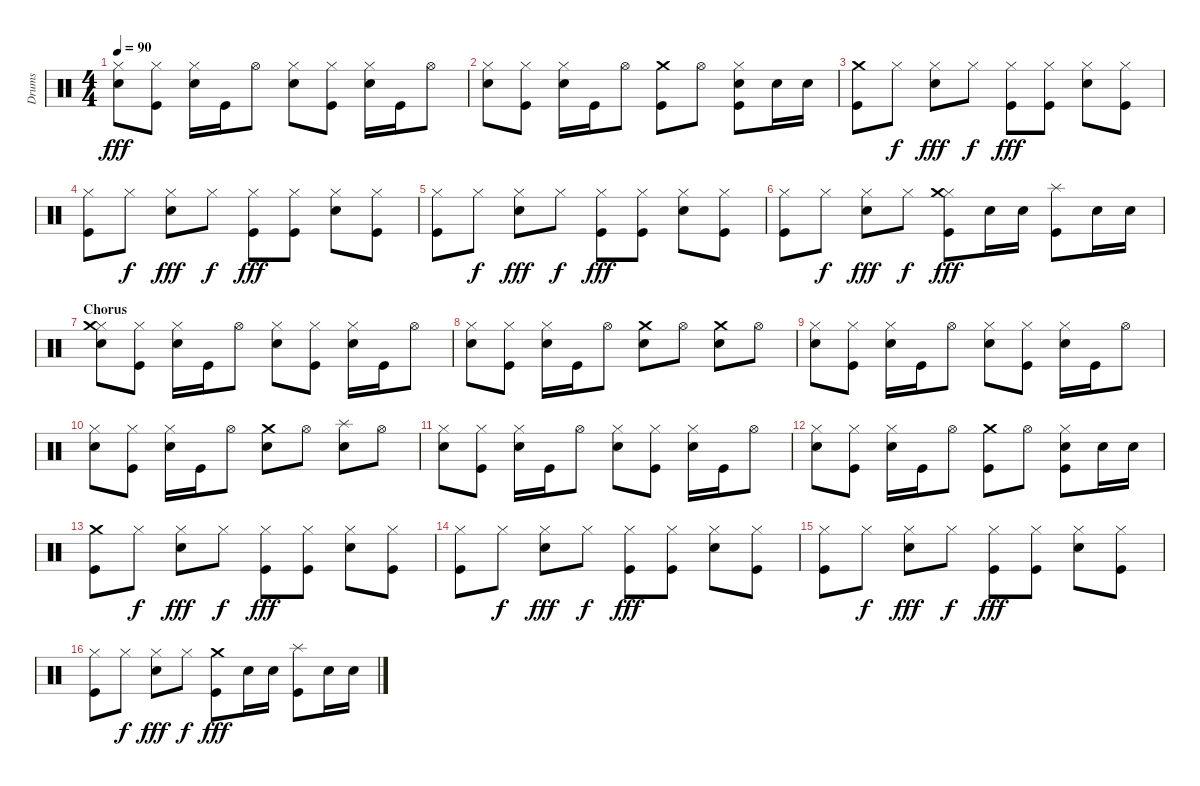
\track ("Drums" "Drums") {instrument percussion}
\staff {score}
\articulation defaults
\ts (4 4)
\tempo 90
\clef neutral
\ks c
("Hi-Hat (closed)" "Snare (hit) 2").8{dy fff} ("Hi-Hat (closed)" "Kick (hit)").8 ("Hi-Hat (closed)" "Snare (hit) 2").16 "Kick (hit)".16 "Hi-Hat (open)".8 ("Hi-Hat (closed)" "Snare (hit) 2").8 ("Hi-Hat (closed)" "Kick (hit)").8 ("Hi-Hat (closed)" "Snare (hit) 2").16 "Kick (hit)".16 "Hi-Hat (open)".8 |
("Hi-Hat (closed)" "Snare (hit) 2").8 ("Hi-Hat (closed)" "Kick (hit)").8 ("Hi-Hat (closed)" "Snare (hit) 2").16 "Kick (hit)".16 "Hi-Hat (open)".8 ("Crash medium (hit)" "Kick (hit)").8 "Hi-Hat (open)".8 ("Hi-Hat (closed)" "Snare (hit) 2" "Kick (hit)").8 "Snare (hit) 2".16 "Snare (hit) 2".16 |
("Crash medium (hit)" "Kick (hit)").8 "Hi-Hat (closed)".8{dy f} ("Hi-Hat (closed)" "Snare (hit) 2").8{dy fff} "Hi-Hat (closed)".8{dy f} ("Hi-Hat (closed)" "Kick (hit)").8{dy fff} ("Hi-Hat (closed)" "Kick (hit)").8 ("Hi-Hat (closed)" "Snare (hit) 2").8 ("Hi-Hat (closed)" "Kick (hit)").8 |
("Hi-Hat (closed)" "Kick (hit)").8 "Hi-Hat (closed)".8{dy f} ("Hi-Hat (closed)" "Snare (hit) 2").8{dy fff} "Hi-Hat (closed)".8{dy f} ("Hi-Hat (closed)" "Kick (hit)").8{dy fff} ("Hi-Hat (closed)" "Kick (hit)").8 ("Hi-Hat (closed)" "Snare (hit) 2").8 ("Hi-Hat (closed)" "Kick (hit)").8 |
("Hi-Hat (closed)" "Kick (hit)").8 "Hi-Hat (closed)".8{dy f} ("Hi-Hat (closed)" "Snare (hit) 2").8{dy fff} "Hi-Hat (closed)".8{dy f} ("Hi-Hat (closed)" "Kick (hit)").8{dy fff} ("Hi-Hat (closed)" "Kick (hit)").8 ("Hi-Hat (closed)" "Snare (hit) 2").8 ("Hi-Hat (closed)" "Kick (hit)").8 |
("Hi-Hat (closed)" "Kick (hit)").8 "Hi-Hat (closed)".8{dy f} ("Hi-Hat (closed)" "Snare (hit) 2").8{dy fff} "Hi-Hat (closed)".8{dy f} ("Hi-Hat (closed)" "Crash medium (hit)" "Kick (hit)").8{dy fff} "Snare (hit) 2".16 "Snare (hit) 2".16 ("Splash (hit)" "Kick (hit)").8 "Snare (hit) 2".16 "Snare (hit) 2".16 |
\section ("" "Chorus")
("Hi-Hat (closed)" "Snare (hit) 2" "Crash medium (hit)").8 ("Hi-Hat (closed)" "Kick (hit)").8 ("Hi-Hat (closed)" "Snare (hit) 2").16 "Kick (hit)".16 "Hi-Hat (open)".8 ("Hi-Hat (closed)" "Snare (hit) 2").8 ("Hi-Hat (closed)" "Kick (hit)").8 ("Hi-Hat (closed)" "Snare (hit) 2").16 "Kick (hit)".16 "Hi-Hat (open)".8 |
("Hi-Hat (closed)" "Snare (hit) 2").8 ("Hi-Hat (closed)" "Kick (hit)").8 ("Hi-Hat (closed)" "Snare (hit) 2").16 "Kick (hit)".16 "Hi-Hat (open)".8 ("Snare (hit) 2" "Crash medium (hit)").8 "Hi-Hat (open)".8 ("Snare (hit) 2" "Crash medium (hit)").8 "Hi-Hat (open)".8 |
("Hi-Hat (closed)" "Snare (hit) 2").8 ("Hi-Hat (closed)" "Kick (hit)").8 ("Hi-Hat (closed)" "Snare (hit) 2").16 "Kick (hit)".16 "Hi-Hat (open)".8 ("Hi-Hat (closed)" "Snare (hit) 2").8 ("Hi-Hat (closed)" "Kick (hit)").8 ("Hi-Hat (closed)" "Snare (hit) 2").16 "Kick (hit)".16 "Hi-Hat (open)".8 |
("Hi-Hat (closed)" "Snare (hit) 2").8 ("Hi-Hat (closed)" "Kick (hit)").8 ("Hi-Hat (closed)" "Snare (hit) 2").16 "Kick (hit)".16 "Hi-Hat (open)".8 ("Snare (hit) 2" "Crash medium (hit)").8 "Hi-Hat (open)".8 ("Splash (hit)" "Snare (hit) 2").8 "Hi-Hat (open)".8 |
("Hi-Hat (closed)" "Snare (hit) 2").8 ("Hi-Hat (closed)" "Kick (hit)").8 ("Hi-Hat (closed)" "Snare (hit) 2").16 "Kick (hit)".16 "Hi-Hat (open)".8 ("Hi-Hat (closed)" "Snare (hit) 2").8 ("Hi-Hat (closed)" "Kick (hit)").8 ("Hi-Hat (closed)" "Snare (hit) 2").16 "Kick (hit)".16 "Hi-Hat (open)".8 |
("Hi-Hat (closed)" "Snare (hit) 2").8 ("Hi-Hat (closed)" "Kick (hit)").8 ("Hi-Hat (closed)" "Snare (hit) 2").16 "Kick (hit)".16 "Hi-Hat (open)".8 ("Crash medium (hit)" "Kick (hit)").8 "Hi-Hat (open)".8 ("Hi-Hat (closed)" "Snare (hit) 2" "Kick (hit)").8 "Snare (hit) 2".16 "Snare (hit) 2".16 |
("Crash medium (hit)" "Kick (hit)").8 "Hi-Hat (closed)".8{dy f} ("Hi-Hat (closed)" "Snare (hit) 2").8{dy fff} "Hi-Hat (closed)".8{dy f} ("Hi-Hat (closed)" "Kick (hit)").8{dy fff} ("Hi-Hat (closed)" "Kick (hit)").8 ("Hi-Hat (closed)" "Snare (hit) 2").8 ("Hi-Hat (closed)" "Kick (hit)").8 |
("Hi-Hat (closed)" "Kick (hit)").8 "Hi-Hat (closed)".8{dy f} ("Hi-Hat (closed)" "Snare (hit) 2").8{dy fff} "Hi-Hat (closed)".8{dy f} ("Hi-Hat (closed)" "Kick (hit)").8{dy fff} ("Hi-Hat (closed)" "Kick (hit)").8 ("Hi-Hat (closed)" "Snare (hit) 2").8 ("Hi-Hat (closed)" "Kick (hit)").8 |
("Hi-Hat (closed)" "Kick (hit)").8 "Hi-Hat (closed)".8{dy f} ("Hi-Hat (closed)" "Snare (hit) 2").8{dy fff} "Hi-Hat (closed)".8{dy f} ("Hi-Hat (closed)" "Kick (hit)").8{dy fff} ("Hi-Hat (closed)" "Kick (hit)").8 ("Hi-Hat (closed)" "Snare (hit) 2").8 ("Hi-Hat (closed)" "Kick (hit)").8 |
("Hi-Hat (closed)" "Kick (hit)").8 "Hi-Hat (closed)".8{dy f} ("Hi-Hat (closed)" "Snare (hit) 2").8{dy fff} "Hi-Hat (closed)".8{dy f} ("Crash medium (hit)" "Kick (hit)").8{dy fff} "Snare (hit) 2".16 "Snare (hit) 2".16 ("Splash (hit)" "Kick (hit)").8 "Snare (hit) 2".16 "Snare (hit) 2".16
